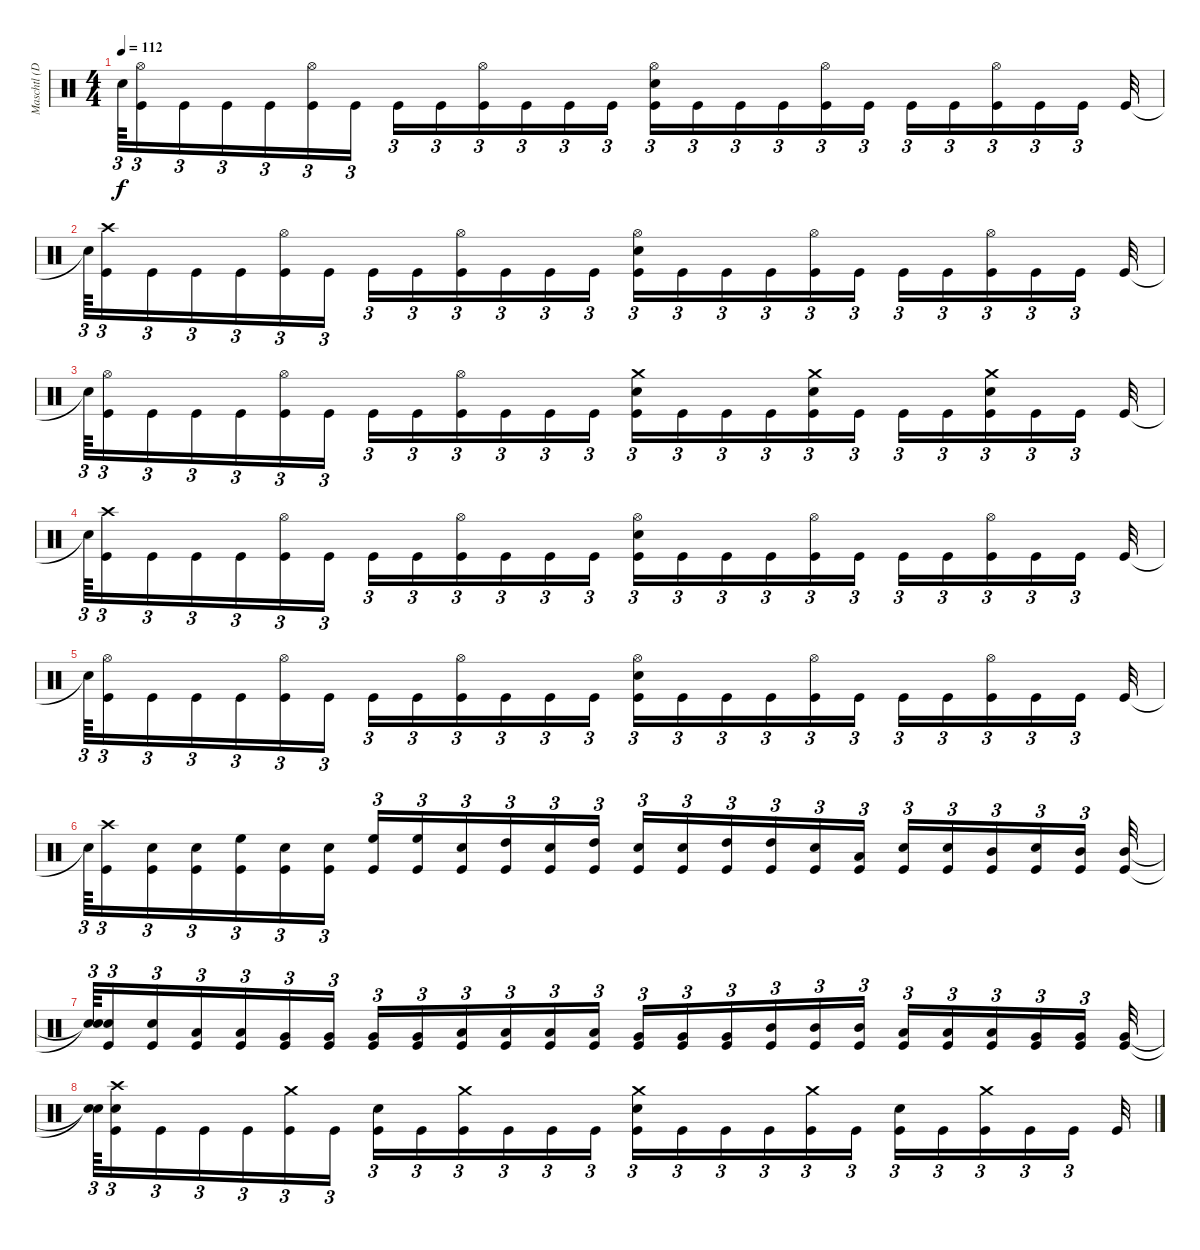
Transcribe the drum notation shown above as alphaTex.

\track ("Maschtl (Drums)" "Maschtl (D") {instrument percussion}
\staff {score}
\articulation defaults
\ts (4 4)
\tempo 112
\clef neutral
\ks c "Snare (hit)"{t}.64{tu (3 2) dy f}
("Hi-Hat (open)" "Kick (hit)").16{tu (3 2)} "Kick (hit)".16{tu (3 2)} "Kick (hit)".16{tu (3 2)} "Kick (hit)".16{tu (3 2)} ("Hi-Hat (open)" "Kick (hit)").16{tu (3 2)} "Kick (hit)".16{tu (3 2)} "Kick (hit)".16{tu (3 2)} "Kick (hit)".16{tu (3 2)} ("Hi-Hat (open)" "Kick (hit)").16{tu (3 2)} "Kick (hit)".16{tu (3 2)} "Kick (hit)".16{tu (3 2)} "Kick (hit)".16{tu (3 2)} ("Hi-Hat (open)" "Electric Snare (hit)" "Kick (hit)").16{tu (3 2)} "Kick (hit)".16{tu (3 2)} "Kick (hit)".16{tu (3 2)} "Kick (hit)".16{tu (3 2)} ("Hi-Hat (open)" "Kick (hit)").16{tu (3 2)} "Kick (hit)".16{tu (3 2)} "Kick (hit)".16{tu (3 2)} "Kick (hit)".16{tu (3 2)} ("Hi-Hat (open)" "Kick (hit)").16{tu (3 2)} "Kick (hit)".16{tu (3 2)} "Kick (hit)".16{tu (3 2)} "Kick (hit)".32 |
"Snare (hit)"{t}.64{tu (3 2)} ("Crash high (hit)" "Kick (hit)").16{tu (3 2)} "Kick (hit)".16{tu (3 2)} "Kick (hit)".16{tu (3 2)} "Kick (hit)".16{tu (3 2)} ("Hi-Hat (open)" "Kick (hit)").16{tu (3 2)} "Kick (hit)".16{tu (3 2)} "Kick (hit)".16{tu (3 2)} "Kick (hit)".16{tu (3 2)} ("Hi-Hat (open)" "Kick (hit)").16{tu (3 2)} "Kick (hit)".16{tu (3 2)} "Kick (hit)".16{tu (3 2)} "Kick (hit)".16{tu (3 2)} ("Hi-Hat (open)" "Electric Snare (hit)" "Kick (hit)").16{tu (3 2)} "Kick (hit)".16{tu (3 2)} "Kick (hit)".16{tu (3 2)} "Kick (hit)".16{tu (3 2)} ("Hi-Hat (open)" "Kick (hit)").16{tu (3 2)} "Kick (hit)".16{tu (3 2)} "Kick (hit)".16{tu (3 2)} "Kick (hit)".16{tu (3 2)} ("Hi-Hat (open)" "Kick (hit)").16{tu (3 2)} "Kick (hit)".16{tu (3 2)} "Kick (hit)".16{tu (3 2)} "Kick (hit)".32 |
"Snare (hit)"{t}.64{tu (3 2)} ("Hi-Hat (open)" "Kick (hit)").16{tu (3 2)} "Kick (hit)".16{tu (3 2)} "Kick (hit)".16{tu (3 2)} "Kick (hit)".16{tu (3 2)} ("Hi-Hat (open)" "Kick (hit)").16{tu (3 2)} "Kick (hit)".16{tu (3 2)} "Kick (hit)".16{tu (3 2)} "Kick (hit)".16{tu (3 2)} ("Hi-Hat (open)" "Kick (hit)").16{tu (3 2)} "Kick (hit)".16{tu (3 2)} "Kick (hit)".16{tu (3 2)} "Kick (hit)".16{tu (3 2)} ("Crash medium (hit)" "Electric Snare (hit)" "Kick (hit)").16{tu (3 2)} "Kick (hit)".16{tu (3 2)} "Kick (hit)".16{tu (3 2)} "Kick (hit)".16{tu (3 2)} ("Crash medium (hit)" "Electric Snare (hit)" "Kick (hit)").16{tu (3 2)} "Kick (hit)".16{tu (3 2)} "Kick (hit)".16{tu (3 2)} "Kick (hit)".16{tu (3 2)} ("Crash medium (hit)" "Electric Snare (hit)" "Kick (hit)").16{tu (3 2)} "Kick (hit)".16{tu (3 2)} "Kick (hit)".16{tu (3 2)} "Kick (hit)".32 |
"Snare (hit)"{t}.64{tu (3 2)} ("Crash high (hit)" "Kick (hit)").16{tu (3 2)} "Kick (hit)".16{tu (3 2)} "Kick (hit)".16{tu (3 2)} "Kick (hit)".16{tu (3 2)} ("Hi-Hat (open)" "Kick (hit)").16{tu (3 2)} "Kick (hit)".16{tu (3 2)} "Kick (hit)".16{tu (3 2)} "Kick (hit)".16{tu (3 2)} ("Hi-Hat (open)" "Kick (hit)").16{tu (3 2)} "Kick (hit)".16{tu (3 2)} "Kick (hit)".16{tu (3 2)} "Kick (hit)".16{tu (3 2)} ("Hi-Hat (open)" "Electric Snare (hit)" "Kick (hit)").16{tu (3 2)} "Kick (hit)".16{tu (3 2)} "Kick (hit)".16{tu (3 2)} "Kick (hit)".16{tu (3 2)} ("Hi-Hat (open)" "Kick (hit)").16{tu (3 2)} "Kick (hit)".16{tu (3 2)} "Kick (hit)".16{tu (3 2)} "Kick (hit)".16{tu (3 2)} ("Hi-Hat (open)" "Kick (hit)").16{tu (3 2)} "Kick (hit)".16{tu (3 2)} "Kick (hit)".16{tu (3 2)} "Kick (hit)".32 |
"Snare (hit)"{t}.64{tu (3 2)} ("Hi-Hat (open)" "Kick (hit)").16{tu (3 2)} "Kick (hit)".16{tu (3 2)} "Kick (hit)".16{tu (3 2)} "Kick (hit)".16{tu (3 2)} ("Hi-Hat (open)" "Kick (hit)").16{tu (3 2)} "Kick (hit)".16{tu (3 2)} "Kick (hit)".16{tu (3 2)} "Kick (hit)".16{tu (3 2)} ("Hi-Hat (open)" "Kick (hit)").16{tu (3 2)} "Kick (hit)".16{tu (3 2)} "Kick (hit)".16{tu (3 2)} "Kick (hit)".16{tu (3 2)} ("Hi-Hat (open)" "Electric Snare (hit)" "Kick (hit)").16{tu (3 2)} "Kick (hit)".16{tu (3 2)} "Kick (hit)".16{tu (3 2)} "Kick (hit)".16{tu (3 2)} ("Hi-Hat (open)" "Kick (hit)").16{tu (3 2)} "Kick (hit)".16{tu (3 2)} "Kick (hit)".16{tu (3 2)} "Kick (hit)".16{tu (3 2)} ("Hi-Hat (open)" "Kick (hit)").16{tu (3 2)} "Kick (hit)".16{tu (3 2)} "Kick (hit)".16{tu (3 2)} "Kick (hit)".32 |
"Snare (hit)"{t}.64{tu (3 2)} ("Crash high (hit)" "Kick (hit)").16{tu (3 2)} ("Electric Snare (hit)" "Kick (hit)").16{tu (3 2)} ("Electric Snare (hit)" "Kick (hit)").16{tu (3 2)} ("High Floor Tom (hit)" "Kick (hit)").16{tu (3 2)} ("Electric Snare (hit)" "Kick (hit)").16{tu (3 2)} ("Electric Snare (hit)" "Kick (hit)").16{tu (3 2)} ("High Floor Tom (hit)" "Kick (hit)").16{tu (3 2)} ("High Floor Tom (hit)" "Kick (hit)").16{tu (3 2)} ("Electric Snare (hit)" "Kick (hit)").16{tu (3 2)} ("High Tom (hit)" "Kick (hit)").16{tu (3 2)} ("Electric Snare (hit)" "Kick (hit)").16{tu (3 2)} ("High Tom (hit)" "Kick (hit)").16{tu (3 2)} ("Electric Snare (hit)" "Kick (hit)").16{tu (3 2)} ("Electric Snare (hit)" "Kick (hit)").16{tu (3 2)} ("High Tom (hit)" "Kick (hit)").16{tu (3 2)} ("High Tom (hit)" "Kick (hit)").16{tu (3 2)} ("Electric Snare (hit)" "Kick (hit)").16{tu (3 2)} ("Low Tom (hit)" "Kick (hit)").16{tu (3 2)} ("Electric Snare (hit)" "Kick (hit)").16{tu (3 2)} ("Electric Snare (hit)" "Kick (hit)").16{tu (3 2)} ("Mid Tom (hit)" "Kick (hit)").16{tu (3 2)} ("Electric Snare (hit)" "Kick (hit)").16{tu (3 2)} ("Mid Tom (hit)" "Kick (hit)").16{tu (3 2)} ("Mid Tom (hit)" "Kick (hit)").32 |
("Snare (hit)"{t} "Snare (hit)"{t}).64{tu (3 2)} ("Electric Snare (hit)" "Kick (hit)").16{tu (3 2)} ("Electric Snare (hit)" "Kick (hit)").16{tu (3 2)} ("Low Tom (hit)" "Kick (hit)").16{tu (3 2)} ("Low Tom (hit)" "Kick (hit)").16{tu (3 2)} ("Very Low Tom (hit)" "Kick (hit)").16{tu (3 2)} ("Very Low Tom (hit)" "Kick (hit)").16{tu (3 2)} ("Very Low Tom (hit)" "Kick (hit)").16{tu (3 2)} ("Very Low Tom (hit)" "Kick (hit)").16{tu (3 2)} ("Low Floor Tom (hit)" "Kick (hit)").16{tu (3 2)} ("Low Floor Tom (hit)" "Kick (hit)").16{tu (3 2)} ("Low Floor Tom (hit)" "Kick (hit)").16{tu (3 2)} ("Low Floor Tom (hit)" "Kick (hit)").16{tu (3 2)} ("Very Low Tom (hit)" "Kick (hit)").16{tu (3 2)} ("Very Low Tom (hit)" "Kick (hit)").16{tu (3 2)} ("Very Low Tom (hit)" "Kick (hit)").16{tu (3 2)} ("Mid Tom (hit)" "Kick (hit)").16{tu (3 2)} ("Mid Tom (hit)" "Kick (hit)").16{tu (3 2)} ("Mid Tom (hit)" "Kick (hit)").16{tu (3 2)} ("Low Tom (hit)" "Kick (hit)").16{tu (3 2)} ("Low Tom (hit)" "Kick (hit)").16{tu (3 2)} ("Low Tom (hit)" "Kick (hit)").16{tu (3 2)} ("Very Low Tom (hit)" "Kick (hit)").16{tu (3 2)} ("Very Low Tom (hit)" "Kick (hit)").16{tu (3 2)} ("Very Low Tom (hit)" "Kick (hit)").32 |
("Snare (hit)"{t} "Snare (hit)"{t}).64{tu (3 2)} ("Crash high (hit)" "Electric Snare (hit)" "Kick (hit)").16{tu (3 2)} "Kick (hit)".16{tu (3 2)} "Kick (hit)".16{tu (3 2)} "Kick (hit)".16{tu (3 2)} ("Crash medium (hit)" "Kick (hit)").16{tu (3 2)} "Kick (hit)".16{tu (3 2)} ("Electric Snare (hit)" "Kick (hit)").16{tu (3 2)} "Kick (hit)".16{tu (3 2)} ("Crash medium (hit)" "Kick (hit)").16{tu (3 2)} "Kick (hit)".16{tu (3 2)} "Kick (hit)".16{tu (3 2)} "Kick (hit)".16{tu (3 2)} ("Crash medium (hit)" "Electric Snare (hit)" "Kick (hit)").16{tu (3 2)} "Kick (hit)".16{tu (3 2)} "Kick (hit)".16{tu (3 2)} "Kick (hit)".16{tu (3 2)} ("Crash medium (hit)" "Kick (hit)").16{tu (3 2)} "Kick (hit)".16{tu (3 2)} ("Electric Snare (hit)" "Kick (hit)").16{tu (3 2)} "Kick (hit)".16{tu (3 2)} ("Crash medium (hit)" "Kick (hit)").16{tu (3 2)} "Kick (hit)".16{tu (3 2)} "Kick (hit)".16{tu (3 2)} "Kick (hit)".32
